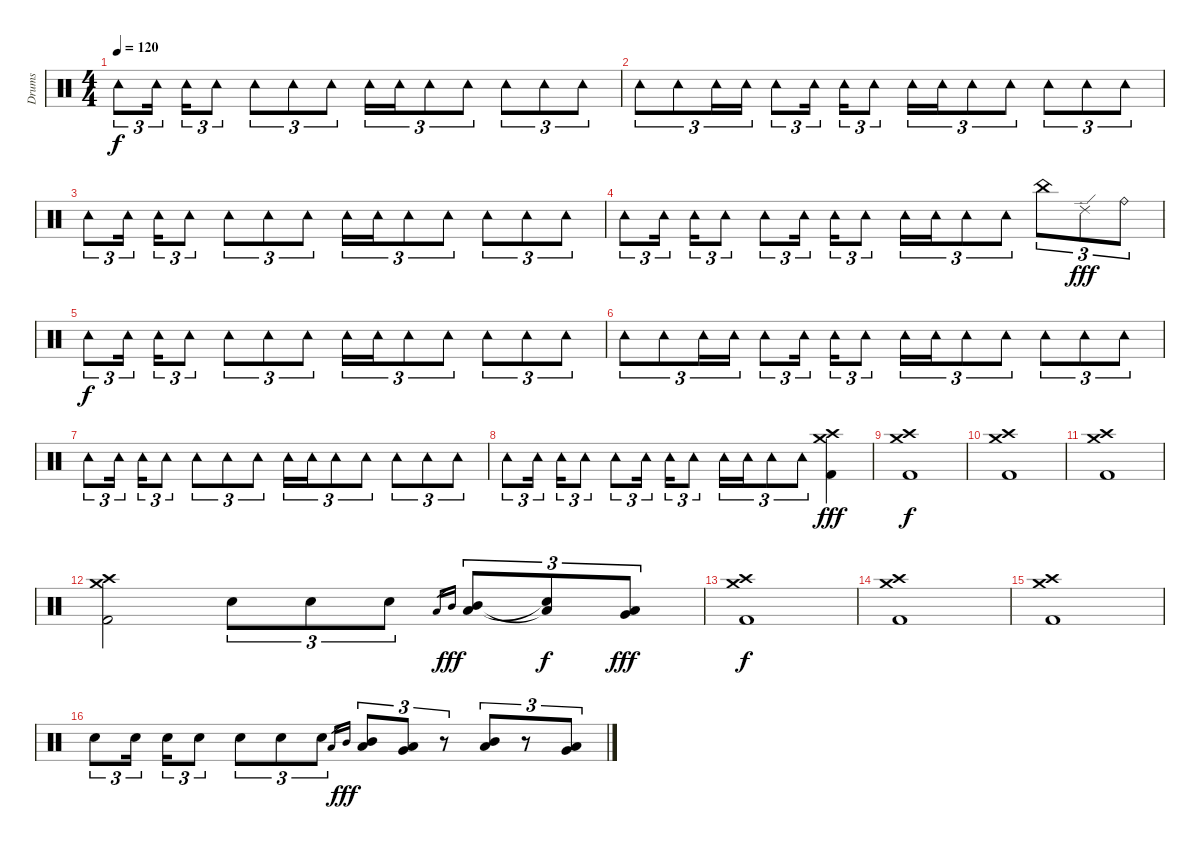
\track ("Drums" "Drums") {instrument percussion}
\staff {score}
\articulation defaults
\ts (4 4)
\tempo 120
\clef neutral
\ks c "Tambourine (hit)".8{tu (3 2) dy f} "Tambourine (hit)".16{tu (3 2)} "Tambourine (hit)".16{tu (3 2)} "Tambourine (hit)".8{tu (3 2)} "Tambourine (hit)".8{tu (3 2)} "Tambourine (hit)".8{tu (3 2)} "Tambourine (hit)".8{tu (3 2)} "Tambourine (hit)".16{tu (3 2)} "Tambourine (hit)".16{tu (3 2)} "Tambourine (hit)".8{tu (3 2)} "Tambourine (hit)".8{tu (3 2)} "Tambourine (hit)".8{tu (3 2)} "Tambourine (hit)".8{tu (3 2)} "Tambourine (hit)".8{tu (3 2)}
|
"Tambourine (hit)".8{tu (3 2)} "Tambourine (hit)".8{tu (3 2)} "Tambourine (hit)".16{tu (3 2)} "Tambourine (hit)".16{tu (3 2)} "Tambourine (hit)".8{tu (3 2)} "Tambourine (hit)".16{tu (3 2)} "Tambourine (hit)".16{tu (3 2)} "Tambourine (hit)".8{tu (3 2)} "Tambourine (hit)".16{tu (3 2)} "Tambourine (hit)".16{tu (3 2)} "Tambourine (hit)".8{tu (3 2)} "Tambourine (hit)".8{tu (3 2)} "Tambourine (hit)".8{tu (3 2)} "Tambourine (hit)".8{tu (3 2)} "Tambourine (hit)".8{tu (3 2)} |
"Tambourine (hit)".8{tu (3 2)} "Tambourine (hit)".16{tu (3 2)} "Tambourine (hit)".16{tu (3 2)} "Tambourine (hit)".8{tu (3 2)} "Tambourine (hit)".8{tu (3 2)} "Tambourine (hit)".8{tu (3 2)} "Tambourine (hit)".8{tu (3 2)} "Tambourine (hit)".16{tu (3 2)} "Tambourine (hit)".16{tu (3 2)} "Tambourine (hit)".8{tu (3 2)} "Tambourine (hit)".8{tu (3 2)} "Tambourine (hit)".8{tu (3 2)} "Tambourine (hit)".8{tu (3 2)} "Tambourine (hit)".8{tu (3 2)} |
"Tambourine (hit)".8{tu (3 2)} "Tambourine (hit)".16{tu (3 2)} "Tambourine (hit)".16{tu (3 2)} "Tambourine (hit)".8{tu (3 2)} "Tambourine (hit)".8{tu (3 2)} "Tambourine (hit)".16{tu (3 2)} "Tambourine (hit)".16{tu (3 2)} "Tambourine (hit)".8{tu (3 2)} "Tambourine (hit)".16{tu (3 2)} "Tambourine (hit)".16{tu (3 2)} "Tambourine (hit)".8{tu (3 2)} "Tambourine (hit)".8{tu (3 2)} "China (hit)".8{tu (3 2)} "Ride (edge) 2".8{tu (3 2) dy fff} "Ride (bell)".8{tu (3 2)} |
"Tambourine (hit)".8{tu (3 2) dy f} "Tambourine (hit)".16{tu (3 2)} "Tambourine (hit)".16{tu (3 2)} "Tambourine (hit)".8{tu (3 2)} "Tambourine (hit)".8{tu (3 2)} "Tambourine (hit)".8{tu (3 2)} "Tambourine (hit)".8{tu (3 2)} "Tambourine (hit)".16{tu (3 2)} "Tambourine (hit)".16{tu (3 2)} "Tambourine (hit)".8{tu (3 2)} "Tambourine (hit)".8{tu (3 2)} "Tambourine (hit)".8{tu (3 2)} "Tambourine (hit)".8{tu (3 2)} "Tambourine (hit)".8{tu (3 2)} |
"Tambourine (hit)".8{tu (3 2)} "Tambourine (hit)".8{tu (3 2)} "Tambourine (hit)".16{tu (3 2)} "Tambourine (hit)".16{tu (3 2)} "Tambourine (hit)".8{tu (3 2)} "Tambourine (hit)".16{tu (3 2)} "Tambourine (hit)".16{tu (3 2)} "Tambourine (hit)".8{tu (3 2)} "Tambourine (hit)".16{tu (3 2)} "Tambourine (hit)".16{tu (3 2)} "Tambourine (hit)".8{tu (3 2)} "Tambourine (hit)".8{tu (3 2)} "Tambourine (hit)".8{tu (3 2)} "Tambourine (hit)".8{tu (3 2)} "Tambourine (hit)".8{tu (3 2)} |
"Tambourine (hit)".8{tu (3 2)} "Tambourine (hit)".16{tu (3 2)} "Tambourine (hit)".16{tu (3 2)} "Tambourine (hit)".8{tu (3 2)} "Tambourine (hit)".8{tu (3 2)} "Tambourine (hit)".8{tu (3 2)} "Tambourine (hit)".8{tu (3 2)} "Tambourine (hit)".16{tu (3 2)} "Tambourine (hit)".16{tu (3 2)} "Tambourine (hit)".8{tu (3 2)} "Tambourine (hit)".8{tu (3 2)} "Tambourine (hit)".8{tu (3 2)} "Tambourine (hit)".8{tu (3 2)} "Tambourine (hit)".8{tu (3 2)} |
"Tambourine (hit)".8{tu (3 2)} "Tambourine (hit)".16{tu (3 2)} "Tambourine (hit)".16{tu (3 2)} "Tambourine (hit)".8{tu (3 2)} "Tambourine (hit)".8{tu (3 2)} "Tambourine (hit)".16{tu (3 2)} "Tambourine (hit)".16{tu (3 2)} "Tambourine (hit)".8{tu (3 2)} "Tambourine (hit)".16{tu (3 2)} "Tambourine (hit)".16{tu (3 2)} "Tambourine (hit)".8{tu (3 2)} "Tambourine (hit)".8{tu (3 2)} ("Crash high (hit)" "Crash medium (hit)" "Kick (hit) 2").4{dy fff} |
("Crash high (hit)" "Crash medium (hit)" "Kick (hit) 2").1{dy f} |
("Crash high (hit)" "Crash medium (hit)" "Kick (hit) 2").1 |
("Crash high (hit)" "Crash medium (hit)" "Kick (hit) 2").1 |
("Crash high (hit)" "Crash medium (hit)" "Kick (hit) 2").2 "Snare (hit) 2".8{tu (3 2)} "Snare (hit) 2".8{tu (3 2)} "Snare (hit) 2".8{tu (3 2)} "Low Tom (hit)".16{gr} "Mid Tom (hit)".16{gr dy fff} ("Low Tom (hit)" "Mid Tom (hit)").8{tu (3 2)} ("Snare (hit)"{t} "Low Tom (hit)"{t}).8{tu (3 2) dy f} ("Low Tom (hit)" "Very Low Tom (hit)").8{tu (3 2) dy fff} |
("Crash high (hit)" "Crash medium (hit)" "Kick (hit) 2").1{dy f} |
("Crash high (hit)" "Crash medium (hit)" "Kick (hit) 2").1 |
("Crash high (hit)" "Crash medium (hit)" "Kick (hit) 2").1 |
"Snare (hit) 2".8{tu (3 2)} "Snare (hit) 2".16{tu (3 2)} "Snare (hit) 2".16{tu (3 2)} "Snare (hit) 2".8{tu (3 2)} "Snare (hit) 2".8{tu (3 2)} "Snare (hit) 2".8{tu (3 2)} "Snare (hit) 2".8{tu (3 2)} "Low Tom (hit)".16{gr} "Mid Tom (hit)".16{gr dy fff} ("Low Tom (hit)" "Mid Tom (hit)").8{tu (3 2)} ("Very Low Tom (hit)" "Low Tom (hit)").8{tu (3 2)} r.8{tu (3 2)} ("Mid Tom (hit)" "Low Tom (hit)").8{tu (3 2)} r.8{tu (3 2)} ("Low Tom (hit)" "Very Low Tom (hit)").8{tu (3 2)}
